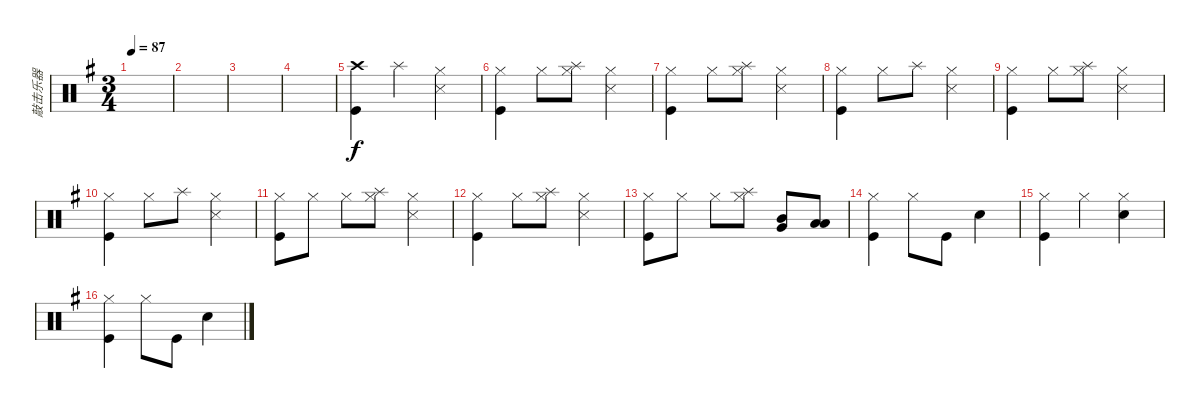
\track ("敲击乐器" "敲击乐器") {instrument percussion}
\staff {score}
\articulation defaults
\ts (3 4)
\tempo 87
\clef neutral
\ks g
|
|
|
|
("Crash high (hit)" "Kick (hit)").4 "Splash (hit)".4 ("Hi-Hat (closed)" "Snare (side stick) 3").4 |
("Hi-Hat (closed)" "Kick (hit)").4 "Hi-Hat (closed)".8 ("Splash (hit)" "Hi-Hat (closed)").8 ("Snare (side stick) 3" "Hi-Hat (closed)").4 |
("Hi-Hat (closed)" "Kick (hit)").4 "Hi-Hat (closed)".8 ("Splash (hit)" "Hi-Hat (closed)").8 ("Snare (side stick) 3" "Hi-Hat (closed)").4 |
("Hi-Hat (closed)" "Kick (hit)").4 "Hi-Hat (closed)".8 "Splash (hit)".8 ("Snare (side stick) 3" "Hi-Hat (closed)").4 |
("Hi-Hat (closed)" "Kick (hit)").4 "Hi-Hat (closed)".8 ("Splash (hit)" "Hi-Hat (closed)").8 ("Snare (side stick) 3" "Hi-Hat (closed)").4 |
("Hi-Hat (closed)" "Kick (hit)").4 "Hi-Hat (closed)".8 "Splash (hit)".8 ("Snare (side stick) 3" "Hi-Hat (closed)").4 |
("Hi-Hat (closed)" "Kick (hit)").8 "Hi-Hat (closed)".8 "Hi-Hat (closed)".8 ("Splash (hit)" "Hi-Hat (closed)").8 ("Snare (side stick) 3" "Hi-Hat (closed)").4 |
("Hi-Hat (closed)" "Kick (hit)").4 "Hi-Hat (closed)".8 ("Splash (hit)" "Hi-Hat (closed)").8 ("Snare (side stick) 3" "Hi-Hat (closed)").4 |
("Hi-Hat (closed)" "Kick (hit)").8 "Hi-Hat (closed)".8 "Hi-Hat (closed)".8 ("Splash (hit)" "Hi-Hat (closed)").8 ("Very Low Tom (hit)" "Mid Tom (hit)").8 ("Low Tom (hit)" "Low Floor Tom (hit)").8 |
("Hi-Hat (closed)" "Kick (hit)").4 "Hi-Hat (closed)".8 "Kick (hit)".8 "Snare (hit) 2".4 |
("Hi-Hat (closed)" "Kick (hit)").4 "Hi-Hat (closed)".4 ("Hi-Hat (closed)" "Snare (hit) 2").4 |
("Hi-Hat (closed)" "Kick (hit)").4 "Hi-Hat (closed)".8 "Kick (hit)".8 "Snare (hit) 2".4
